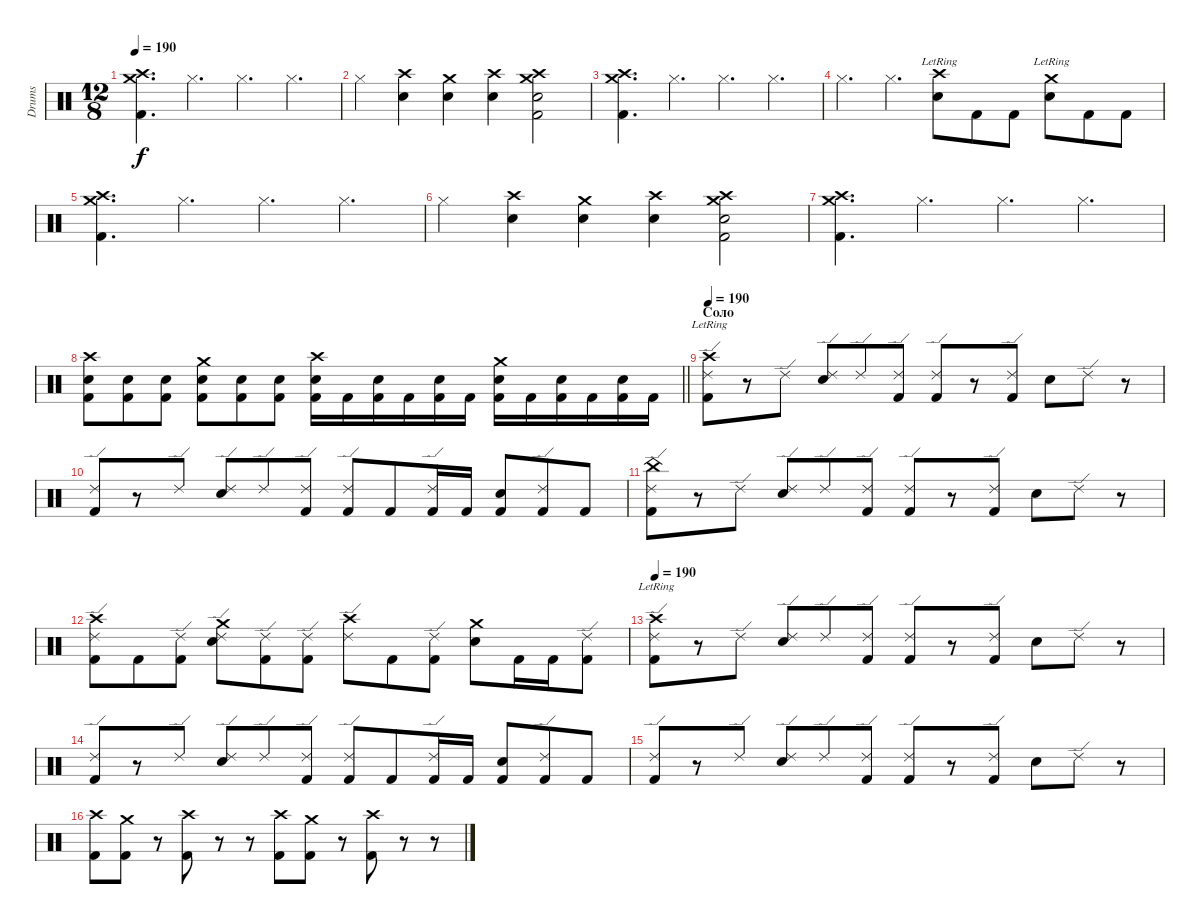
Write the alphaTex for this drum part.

\track ("Drums" "Drums") {instrument percussion}
\staff {score}
\articulation defaults
\ts (12 8)
\tempo 190
\clef neutral
\ks c
("Crash high (hit)" "Crash medium (hit)" "Kick (hit) 2").4{d dy f} "Hi-Hat (closed)".4{d} "Hi-Hat (closed)".4{d} "Hi-Hat (closed)".4{d} |
"Hi-Hat (closed)".4 ("Crash high (hit)" "Electric Snare (hit)").4 ("Crash medium (hit)" "Electric Snare (hit)").4 ("Crash high (hit)" "Electric Snare (hit)").4 ("Crash high (hit)" "Crash medium (hit)" "Electric Snare (hit)" "Kick (hit) 2").2 |
("Crash high (hit)" "Crash medium (hit)" "Kick (hit) 2").4{d} "Hi-Hat (closed)".4{d} "Hi-Hat (closed)".4{d} "Hi-Hat (closed)".4{d} |
"Hi-Hat (closed)".4{d} "Hi-Hat (closed)".4{d} ("Crash high (hit)"{lr} "Electric Snare (hit)").8 "Kick (hit) 2".8 "Kick (hit) 2".8 ("Crash medium (hit)"{lr} "Electric Snare (hit)").8 "Kick (hit) 2".8 "Kick (hit) 2".8 |
("Crash high (hit)" "Crash medium (hit)" "Kick (hit) 2").4{d} "Hi-Hat (closed)".4{d} "Hi-Hat (closed)".4{d} "Hi-Hat (closed)".4{d} |
"Hi-Hat (closed)".4 ("Crash high (hit)" "Electric Snare (hit)").4 ("Crash medium (hit)" "Electric Snare (hit)").4 ("Crash high (hit)" "Electric Snare (hit)").4 ("Crash high (hit)" "Crash medium (hit)" "Electric Snare (hit)" "Kick (hit) 2").2 |
("Crash high (hit)" "Crash medium (hit)" "Kick (hit) 2").4{d} "Hi-Hat (closed)".4{d} "Hi-Hat (closed)".4{d} "Hi-Hat (closed)".4{d} |
\barLineRight lightlight
("Crash high (hit)" "Electric Snare (hit)" "Kick (hit) 2").8 ("Electric Snare (hit)" "Kick (hit) 2").8 ("Electric Snare (hit)" "Kick (hit) 2").8 ("Crash medium (hit)" "Electric Snare (hit)" "Kick (hit) 2").8 ("Electric Snare (hit)" "Kick (hit) 2").8 ("Electric Snare (hit)" "Kick (hit) 2").8 ("Crash high (hit)" "Electric Snare (hit)" "Kick (hit) 2").16 "Kick (hit) 2".16 ("Electric Snare (hit)" "Kick (hit) 2").16 "Kick (hit) 2".16 ("Electric Snare (hit)" "Kick (hit) 2").16 "Kick (hit) 2".16 ("Crash medium (hit)" "Electric Snare (hit)" "Kick (hit) 2").16 "Kick (hit) 2".16 ("Electric Snare (hit)" "Kick (hit) 2").16 "Kick (hit) 2".16 ("Electric Snare (hit)" "Kick (hit) 2").16 "Kick (hit) 2".16 |
\section ("" "Соло")
\tempo 190
("Crash high (hit)"{lr} "Kick (hit) 2" "Ride (edge) 2").8 r.8 "Ride (edge) 2".8 ("Electric Snare (hit)" "Ride (edge) 2").8 "Ride (edge) 2".8 ("Kick (hit) 2" "Ride (edge) 2").8 ("Kick (hit) 2" "Ride (edge) 2").8 r.8 ("Kick (hit) 2" "Ride (edge) 2").8 "Electric Snare (hit)".8 "Ride (edge) 2".8 r.8 |
("Kick (hit) 2" "Ride (edge) 2").8 r.8 "Ride (edge) 2".8 ("Electric Snare (hit)" "Ride (edge) 2").8 "Ride (edge) 2".8 ("Kick (hit) 2" "Ride (edge) 2").8 ("Kick (hit) 2" "Ride (edge) 2").8 "Kick (hit) 2".8 ("Kick (hit) 2" "Ride (edge) 2").16 "Kick (hit) 2".16 ("Electric Snare (hit)" "Kick (hit) 2").8 ("Kick (hit) 2" "Ride (edge) 2").8 "Kick (hit) 2".8 |
("China (hit)" "Kick (hit) 2" "Ride (edge) 2").8 r.8 "Ride (edge) 2".8 ("Electric Snare (hit)" "Ride (edge) 2").8 "Ride (edge) 2".8 ("Kick (hit) 2" "Ride (edge) 2").8 ("Kick (hit) 2" "Ride (edge) 2").8 r.8 ("Kick (hit) 2" "Ride (edge) 2").8 "Electric Snare (hit)".8 "Ride (edge) 2".8 r.8 |
("Crash high (hit)" "Kick (hit) 2" "Ride (edge) 2").8 "Kick (hit) 2".8 ("Kick (hit) 2" "Ride (edge) 2").8 ("Crash medium (hit)" "Electric Snare (hit)" "Ride (edge) 2").8 ("Kick (hit) 2" "Ride (edge) 2").8 ("Kick (hit) 2" "Ride (edge) 2").8 ("Crash high (hit)" "Ride (edge) 2").8 "Kick (hit) 2".8 ("Kick (hit) 2" "Ride (edge) 2").8 ("Crash medium (hit)" "Electric Snare (hit)").8 "Kick (hit) 2".16 "Kick (hit) 2".16 ("Kick (hit) 2" "Ride (edge) 2").8 |
\tempo 190
("Crash high (hit)"{lr} "Kick (hit) 2" "Ride (edge) 2").8 r.8 "Ride (edge) 2".8 ("Electric Snare (hit)" "Ride (edge) 2").8 "Ride (edge) 2".8 ("Kick (hit) 2" "Ride (edge) 2").8 ("Kick (hit) 2" "Ride (edge) 2").8 r.8 ("Kick (hit) 2" "Ride (edge) 2").8 "Electric Snare (hit)".8 "Ride (edge) 2".8 r.8 |
("Kick (hit) 2" "Ride (edge) 2").8 r.8 "Ride (edge) 2".8 ("Electric Snare (hit)" "Ride (edge) 2").8 "Ride (edge) 2".8 ("Kick (hit) 2" "Ride (edge) 2").8 ("Kick (hit) 2" "Ride (edge) 2").8 "Kick (hit) 2".8 ("Kick (hit) 2" "Ride (edge) 2").16 "Kick (hit) 2".16 ("Electric Snare (hit)" "Kick (hit) 2").8 ("Kick (hit) 2" "Ride (edge) 2").8 "Kick (hit) 2".8 |
("Kick (hit) 2" "Ride (edge) 2").8 r.8 "Ride (edge) 2".8 ("Electric Snare (hit)" "Ride (edge) 2").8 "Ride (edge) 2".8 ("Kick (hit) 2" "Ride (edge) 2").8 ("Kick (hit) 2" "Ride (edge) 2").8 r.8 ("Kick (hit) 2" "Ride (edge) 2").8 "Electric Snare (hit)".8 "Ride (edge) 2".8 r.8 |
("Crash high (hit)" "Kick (hit) 2").8 ("Crash medium (hit)" "Kick (hit) 2").8 r.8 ("Crash high (hit)" "Kick (hit) 2").8 r.8 r.8 ("Crash high (hit)" "Kick (hit) 2").8 ("Crash medium (hit)" "Kick (hit) 2").8 r.8 ("Crash high (hit)" "Kick (hit) 2").8 r.8 r.8
